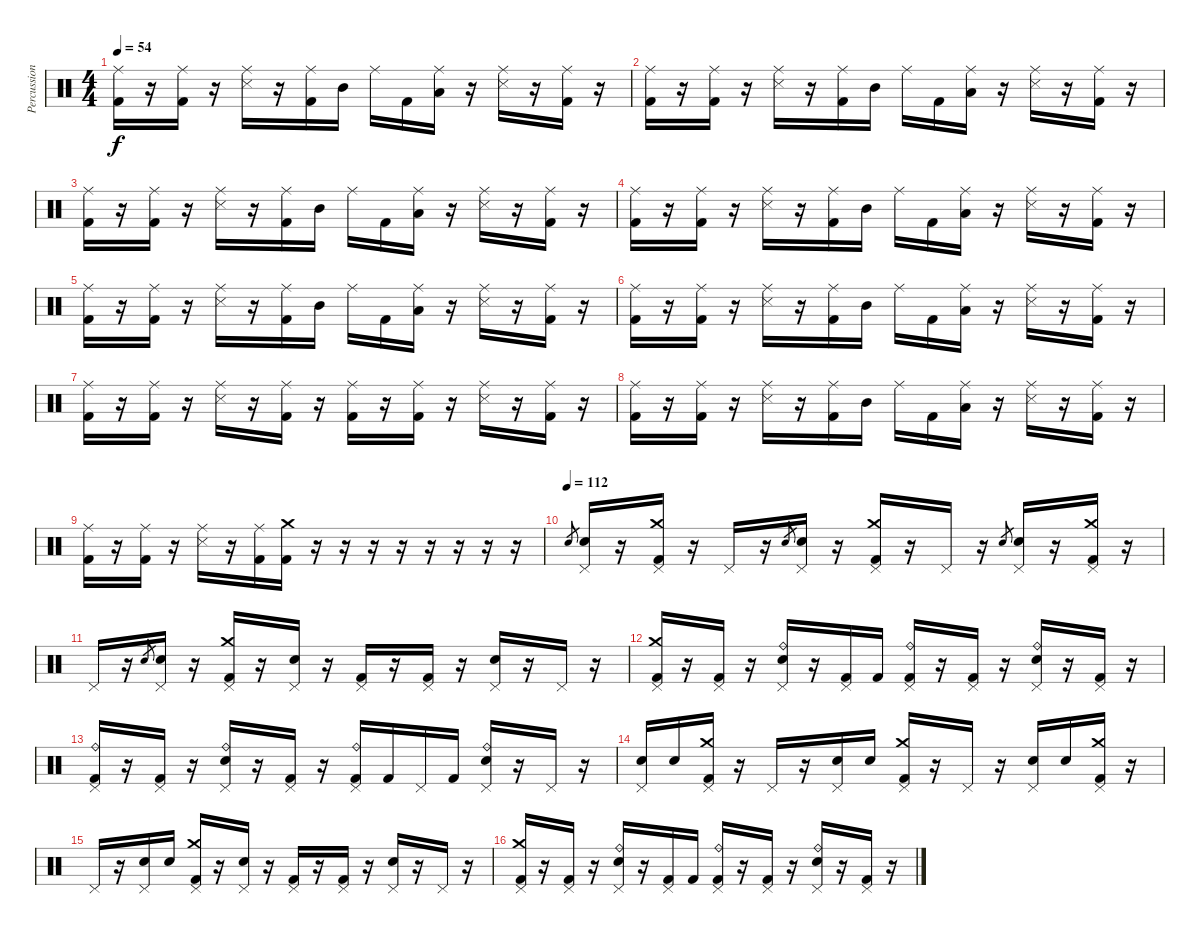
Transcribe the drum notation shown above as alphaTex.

\track ("Percussion" "Percussion") {instrument percussion}
\staff {score}
\articulation defaults
\ts (4 4)
\tempo 54
\clef neutral
\ks c
("Ride (middle)" "Kick (hit) 2").16{dy f} r.16 ("Ride (middle)" "Kick (hit) 2").16 r.16 ("Ride (middle)" "Snare (side stick) 3").16 r.16 ("Ride (middle)" "Kick (hit) 2").16 "Mid Tom (hit)".16 "Ride (middle)".16 "Kick (hit) 2".16 ("Ride (middle)" "Low Tom (hit)").16 r.16 ("Ride (middle)" "Snare (side stick) 3").16 r.16 ("Ride (middle)" "Kick (hit) 2").16 r.16 |
("Ride (middle)" "Kick (hit) 2").16 r.16 ("Ride (middle)" "Kick (hit) 2").16 r.16 ("Ride (middle)" "Snare (side stick) 3").16 r.16 ("Ride (middle)" "Kick (hit) 2").16 "Mid Tom (hit)".16 "Ride (middle)".16 "Kick (hit) 2".16 ("Ride (middle)" "Low Tom (hit)").16 r.16 ("Ride (middle)" "Snare (side stick) 3").16 r.16 ("Ride (middle)" "Kick (hit) 2").16 r.16 |
("Ride (middle)" "Kick (hit) 2").16 r.16 ("Ride (middle)" "Kick (hit) 2").16 r.16 ("Ride (middle)" "Snare (side stick) 3").16 r.16 ("Ride (middle)" "Kick (hit) 2").16 "Mid Tom (hit)".16 "Ride (middle)".16 "Kick (hit) 2".16 ("Ride (middle)" "Low Tom (hit)").16 r.16 ("Ride (middle)" "Snare (side stick) 3").16 r.16 ("Ride (middle)" "Kick (hit) 2").16 r.16 |
("Ride (middle)" "Kick (hit) 2").16 r.16 ("Ride (middle)" "Kick (hit) 2").16 r.16 ("Ride (middle)" "Snare (side stick) 3").16 r.16 ("Ride (middle)" "Kick (hit) 2").16 "Mid Tom (hit)".16 "Ride (middle)".16 "Kick (hit) 2".16 ("Ride (middle)" "Low Tom (hit)").16 r.16 ("Ride (middle)" "Snare (side stick) 3").16 r.16 ("Ride (middle)" "Kick (hit) 2").16 r.16 |
("Ride (middle)" "Kick (hit) 2").16 r.16 ("Ride (middle)" "Kick (hit) 2").16 r.16 ("Ride (middle)" "Snare (side stick) 3").16 r.16 ("Ride (middle)" "Kick (hit) 2").16 "Mid Tom (hit)".16 "Ride (middle)".16 "Kick (hit) 2".16 ("Ride (middle)" "Low Tom (hit)").16 r.16 ("Ride (middle)" "Snare (side stick) 3").16 r.16 ("Ride (middle)" "Kick (hit) 2").16 r.16 |
("Ride (middle)" "Kick (hit) 2").16 r.16 ("Ride (middle)" "Kick (hit) 2").16 r.16 ("Ride (middle)" "Snare (side stick) 3").16 r.16 ("Ride (middle)" "Kick (hit) 2").16 "Mid Tom (hit)".16 "Ride (middle)".16 "Kick (hit) 2".16 ("Ride (middle)" "Low Tom (hit)").16 r.16 ("Ride (middle)" "Snare (side stick) 3").16 r.16 ("Ride (middle)" "Kick (hit) 2").16 r.16 |
("Ride (middle)" "Kick (hit) 2").16 r.16 ("Ride (middle)" "Kick (hit) 2").16 r.16 ("Ride (middle)" "Snare (side stick) 3").16 r.16 ("Ride (middle)" "Kick (hit) 2").16 r.16 ("Ride (middle)" "Kick (hit) 2").16 r.16 ("Ride (middle)" "Kick (hit) 2").16 r.16 ("Ride (middle)" "Snare (side stick) 3").16 r.16 ("Ride (middle)" "Kick (hit) 2").16 r.16 |
("Ride (middle)" "Kick (hit) 2").16 r.16 ("Ride (middle)" "Kick (hit) 2").16 r.16 ("Ride (middle)" "Snare (side stick) 3").16 r.16 ("Ride (middle)" "Kick (hit) 2").16 "Mid Tom (hit)".16 "Ride (middle)".16 "Kick (hit) 2".16 ("Ride (middle)" "Low Tom (hit)").16 r.16 ("Ride (middle)" "Snare (side stick) 3").16 r.16 ("Ride (middle)" "Kick (hit) 2").16 r.16 |
("Ride (middle)" "Kick (hit) 2").16 r.16 ("Ride (middle)" "Kick (hit) 2").16 r.16 ("Ride (middle)" "Snare (side stick) 3").16 r.16 ("Ride (middle)" "Kick (hit) 2").16 ("Crash medium (hit)" "Kick (hit) 2").16 r.16 r.16 r.16 r.16 r.16 r.16 r.16 r.16 |
\tempo (112)
"Snare (hit) 2".8{gr} ("Pedal Hi-Hat (hit)" "Snare (hit) 2").16{volume 13} r.16 ("Crash medium (hit)" "Pedal Hi-Hat (hit)" "Kick (hit) 2").16 r.16 "Pedal Hi-Hat (hit)".16 r.16 "Snare (hit) 2".8{gr} ("Pedal Hi-Hat (hit)" "Snare (hit) 2").16 r.16 ("Crash medium (hit)" "Pedal Hi-Hat (hit)" "Kick (hit) 2").16 r.16 "Pedal Hi-Hat (hit)".16 r.16 "Snare (hit) 2".8{gr} ("Pedal Hi-Hat (hit)" "Snare (hit) 2").16 r.16 ("Crash medium (hit)" "Pedal Hi-Hat (hit)" "Kick (hit) 2").16 r.16 |
"Pedal Hi-Hat (hit)".16 r.16 "Snare (hit) 2".8{gr} ("Pedal Hi-Hat (hit)" "Snare (hit) 2").16 r.16 ("Crash medium (hit)" "Pedal Hi-Hat (hit)" "Kick (hit) 2").16 r.16 ("Pedal Hi-Hat (hit)" "Snare (hit) 2").16 r.16 ("Pedal Hi-Hat (hit)" "Kick (hit) 2").16 r.16 ("Pedal Hi-Hat (hit)" "Kick (hit) 2").16 r.16 ("Pedal Hi-Hat (hit)" "Snare (hit) 2").16 r.16 "Pedal Hi-Hat (hit)".16 r.16 |
("Crash medium (hit)" "Pedal Hi-Hat (hit)" "Kick (hit) 2").16 r.16 ("Pedal Hi-Hat (hit)" "Kick (hit) 2").16 r.16 ("Pedal Hi-Hat (hit)" "Ride (bell)" "Snare (hit) 2").16 r.16 ("Pedal Hi-Hat (hit)" "Kick (hit) 2").16 "Kick (hit) 2".16 ("Pedal Hi-Hat (hit)" "Ride (bell)" "Kick (hit) 2").16 r.16 ("Pedal Hi-Hat (hit)" "Kick (hit) 2").16 r.16 ("Pedal Hi-Hat (hit)" "Ride (bell)" "Snare (hit) 2").16 r.16 ("Pedal Hi-Hat (hit)" "Kick (hit) 2").16 r.16 |
("Pedal Hi-Hat (hit)" "Ride (bell)" "Kick (hit) 2").16 r.16 ("Pedal Hi-Hat (hit)" "Kick (hit) 2").16 r.16 ("Pedal Hi-Hat (hit)" "Ride (bell)" "Snare (hit) 2").16 r.16 ("Pedal Hi-Hat (hit)" "Kick (hit) 2").16 r.16 ("Pedal Hi-Hat (hit)" "Ride (bell)" "Kick (hit) 2").16 "Kick (hit) 2".16 "Pedal Hi-Hat (hit)".16 "Kick (hit) 2".16 ("Pedal Hi-Hat (hit)" "Ride (bell)" "Snare (hit) 2").16 r.16 "Pedal Hi-Hat (hit)".16 r.16 |
("Pedal Hi-Hat (hit)" "Snare (hit) 2").16 "Snare (hit) 2".16 ("Crash medium (hit)" "Pedal Hi-Hat (hit)" "Kick (hit) 2").16 r.16 "Pedal Hi-Hat (hit)".16 r.16 ("Pedal Hi-Hat (hit)" "Snare (hit) 2").16 "Snare (hit) 2".16 ("Crash medium (hit)" "Pedal Hi-Hat (hit)" "Kick (hit) 2").16 r.16 "Pedal Hi-Hat (hit)".16 r.16 ("Pedal Hi-Hat (hit)" "Snare (hit) 2").16 "Snare (hit) 2".16 ("Crash medium (hit)" "Pedal Hi-Hat (hit)" "Kick (hit) 2").16 r.16 |
"Pedal Hi-Hat (hit)".16 r.16 ("Pedal Hi-Hat (hit)" "Snare (hit) 2").16 "Snare (hit) 2".16 ("Crash medium (hit)" "Pedal Hi-Hat (hit)" "Kick (hit) 2").16 r.16 ("Pedal Hi-Hat (hit)" "Snare (hit) 2").16 r.16 ("Pedal Hi-Hat (hit)" "Kick (hit) 2").16 r.16 ("Pedal Hi-Hat (hit)" "Kick (hit) 2").16 r.16 ("Pedal Hi-Hat (hit)" "Snare (hit) 2").16 r.16 "Pedal Hi-Hat (hit)".16 r.16 |
("Crash medium (hit)" "Pedal Hi-Hat (hit)" "Kick (hit) 2").16 r.16 ("Pedal Hi-Hat (hit)" "Kick (hit) 2").16 r.16 ("Pedal Hi-Hat (hit)" "Ride (bell)" "Snare (hit) 2").16 r.16 ("Pedal Hi-Hat (hit)" "Kick (hit) 2").16 "Kick (hit) 2".16 ("Pedal Hi-Hat (hit)" "Ride (bell)" "Kick (hit) 2").16 r.16 ("Pedal Hi-Hat (hit)" "Kick (hit) 2").16 r.16 ("Pedal Hi-Hat (hit)" "Ride (bell)" "Snare (hit) 2").16 r.16 ("Pedal Hi-Hat (hit)" "Kick (hit) 2").16 r.16
